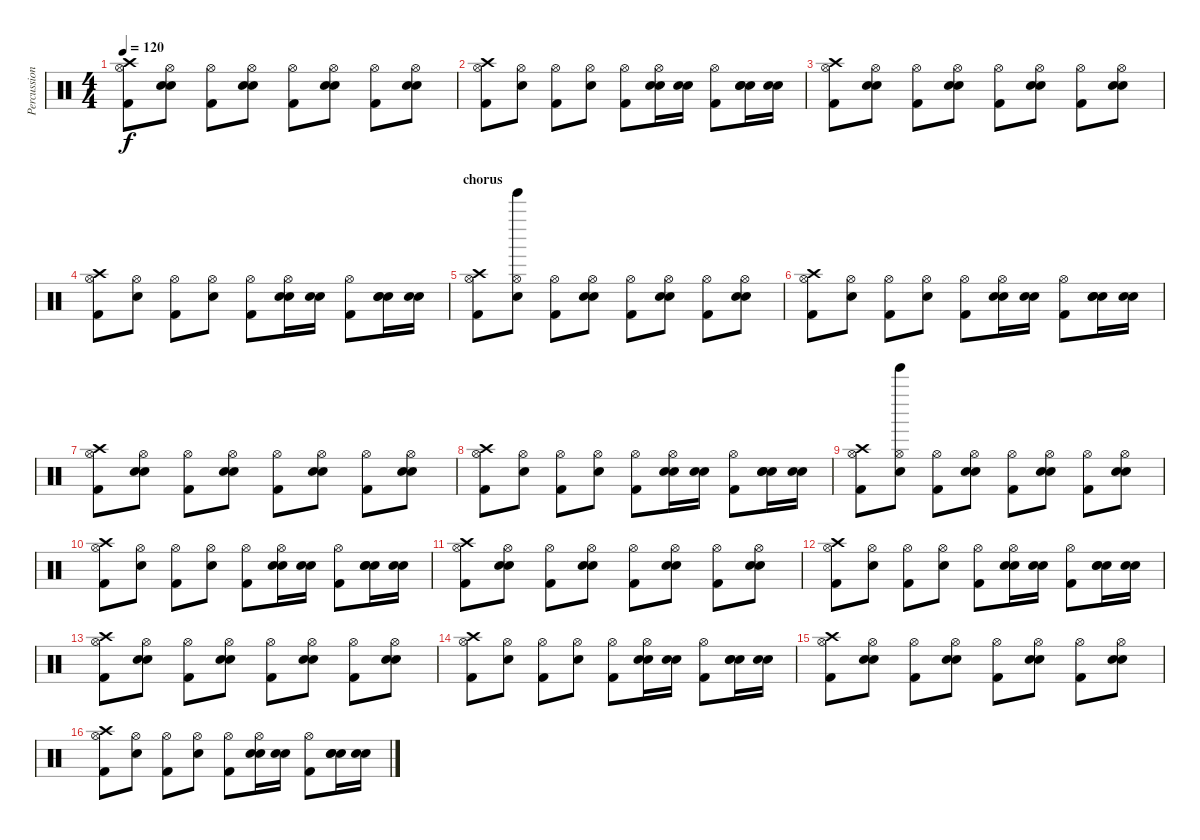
\track ("Percussion" "Percussion") {instrument percussion}
\staff {score}
\articulation defaults
\ts (4 4)
\tempo 120
\clef neutral
\ks c
("Hi-Hat (open)" "Crash high (hit)" "Kick (hit) 2").8{dy f} ("Hi-Hat (open)" "Electric Snare (hit)" "Snare (hit) 2").8 ("Hi-Hat (open)" "Kick (hit) 2").8 ("Hi-Hat (open)" "Electric Snare (hit)" "Snare (hit) 2").8 ("Hi-Hat (open)" "Kick (hit) 2").8 ("Hi-Hat (open)" "Electric Snare (hit)" "Snare (hit) 2").8 ("Hi-Hat (open)" "Kick (hit) 2").8 ("Hi-Hat (open)" "Electric Snare (hit)" "Snare (hit) 2").8 |
("Hi-Hat (open)" "Crash high (hit)" "Kick (hit) 2").8 ("Hi-Hat (open)" "Electric Snare (hit)").8 ("Hi-Hat (open)" "Kick (hit) 2").8 ("Hi-Hat (open)" "Electric Snare (hit)").8 ("Hi-Hat (open)" "Kick (hit) 2").8 ("Hi-Hat (open)" "Electric Snare (hit)" "Snare (hit) 2").16 ("Electric Snare (hit)" "Snare (hit) 2").16 ("Hi-Hat (open)" "Kick (hit) 2").8 ("Electric Snare (hit)" "Electric Snare (hit)" "Snare (hit) 2").16 ("Electric Snare (hit)" "Snare (hit) 2").16 |
("Hi-Hat (open)" "Crash high (hit)" "Kick (hit) 2").8 ("Hi-Hat (open)" "Electric Snare (hit)" "Snare (hit) 2").8 ("Hi-Hat (open)" "Kick (hit) 2").8 ("Hi-Hat (open)" "Electric Snare (hit)" "Snare (hit) 2").8 ("Hi-Hat (open)" "Kick (hit) 2").8 ("Hi-Hat (open)" "Electric Snare (hit)" "Snare (hit) 2").8 ("Hi-Hat (open)" "Kick (hit) 2").8 ("Hi-Hat (open)" "Electric Snare (hit)" "Snare (hit) 2").8 |
("Hi-Hat (open)" "Crash high (hit)" "Kick (hit) 2").8 ("Hi-Hat (open)" "Electric Snare (hit)").8 ("Hi-Hat (open)" "Kick (hit) 2").8 ("Hi-Hat (open)" "Electric Snare (hit)").8 ("Hi-Hat (open)" "Kick (hit) 2").8 ("Hi-Hat (open)" "Electric Snare (hit)" "Snare (hit) 2").16 ("Electric Snare (hit)" "Snare (hit) 2").16 ("Hi-Hat (open)" "Kick (hit) 2").8 ("Electric Snare (hit)" "Electric Snare (hit)" "Snare (hit) 2").16 ("Electric Snare (hit)" "Snare (hit) 2").16 |
\section ("" "chorus")
("Hi-Hat (open)" "Crash high (hit)" "Kick (hit) 2").8 ("Hi-Hat (open)" "Electric Snare (hit)" "Tinkle Bell (hit)").8 ("Hi-Hat (open)" "Kick (hit) 2").8 ("Hi-Hat (open)" "Electric Snare (hit)" "Snare (hit) 2").8 ("Hi-Hat (open)" "Kick (hit) 2").8 ("Hi-Hat (open)" "Electric Snare (hit)" "Snare (hit) 2").8 ("Hi-Hat (open)" "Kick (hit) 2").8 ("Hi-Hat (open)" "Electric Snare (hit)" "Snare (hit) 2").8 |
("Hi-Hat (open)" "Crash high (hit)" "Kick (hit) 2").8 ("Hi-Hat (open)" "Electric Snare (hit)").8 ("Hi-Hat (open)" "Kick (hit) 2").8 ("Hi-Hat (open)" "Electric Snare (hit)").8 ("Hi-Hat (open)" "Kick (hit) 2").8 ("Hi-Hat (open)" "Electric Snare (hit)" "Snare (hit) 2").16 ("Electric Snare (hit)" "Snare (hit) 2").16 ("Hi-Hat (open)" "Kick (hit) 2").8 ("Electric Snare (hit)" "Electric Snare (hit)" "Snare (hit) 2").16 ("Electric Snare (hit)" "Snare (hit) 2").16 |
("Hi-Hat (open)" "Crash high (hit)" "Kick (hit) 2").8 ("Hi-Hat (open)" "Electric Snare (hit)" "Snare (hit) 2").8 ("Hi-Hat (open)" "Kick (hit) 2").8 ("Hi-Hat (open)" "Electric Snare (hit)" "Snare (hit) 2").8 ("Hi-Hat (open)" "Kick (hit) 2").8 ("Hi-Hat (open)" "Electric Snare (hit)" "Snare (hit) 2").8 ("Hi-Hat (open)" "Kick (hit) 2").8 ("Hi-Hat (open)" "Electric Snare (hit)" "Snare (hit) 2").8 |
("Hi-Hat (open)" "Crash high (hit)" "Kick (hit) 2").8 ("Hi-Hat (open)" "Electric Snare (hit)").8 ("Hi-Hat (open)" "Kick (hit) 2").8 ("Hi-Hat (open)" "Electric Snare (hit)").8 ("Hi-Hat (open)" "Kick (hit) 2").8 ("Hi-Hat (open)" "Electric Snare (hit)" "Snare (hit) 2").16 ("Electric Snare (hit)" "Snare (hit) 2").16 ("Hi-Hat (open)" "Kick (hit) 2").8 ("Electric Snare (hit)" "Electric Snare (hit)" "Snare (hit) 2").16 ("Electric Snare (hit)" "Snare (hit) 2").16 |
("Hi-Hat (open)" "Crash high (hit)" "Kick (hit) 2").8 ("Hi-Hat (open)" "Electric Snare (hit)" "Tinkle Bell (hit)").8 ("Hi-Hat (open)" "Kick (hit) 2").8 ("Hi-Hat (open)" "Electric Snare (hit)" "Snare (hit) 2").8 ("Hi-Hat (open)" "Kick (hit) 2").8 ("Hi-Hat (open)" "Electric Snare (hit)" "Snare (hit) 2").8 ("Hi-Hat (open)" "Kick (hit) 2").8 ("Hi-Hat (open)" "Electric Snare (hit)" "Snare (hit) 2").8 |
("Hi-Hat (open)" "Crash high (hit)" "Kick (hit) 2").8 ("Hi-Hat (open)" "Electric Snare (hit)").8 ("Hi-Hat (open)" "Kick (hit) 2").8 ("Hi-Hat (open)" "Electric Snare (hit)").8 ("Hi-Hat (open)" "Kick (hit) 2").8 ("Hi-Hat (open)" "Electric Snare (hit)" "Snare (hit) 2").16 ("Electric Snare (hit)" "Snare (hit) 2").16 ("Hi-Hat (open)" "Kick (hit) 2").8 ("Electric Snare (hit)" "Electric Snare (hit)" "Snare (hit) 2").16 ("Electric Snare (hit)" "Snare (hit) 2").16 |
("Hi-Hat (open)" "Crash high (hit)" "Kick (hit) 2").8 ("Hi-Hat (open)" "Electric Snare (hit)" "Snare (hit) 2").8 ("Hi-Hat (open)" "Kick (hit) 2").8 ("Hi-Hat (open)" "Electric Snare (hit)" "Snare (hit) 2").8 ("Hi-Hat (open)" "Kick (hit) 2").8 ("Hi-Hat (open)" "Electric Snare (hit)" "Snare (hit) 2").8 ("Hi-Hat (open)" "Kick (hit) 2").8 ("Hi-Hat (open)" "Electric Snare (hit)" "Snare (hit) 2").8 |
("Hi-Hat (open)" "Crash high (hit)" "Kick (hit) 2").8 ("Hi-Hat (open)" "Electric Snare (hit)").8 ("Hi-Hat (open)" "Kick (hit) 2").8 ("Hi-Hat (open)" "Electric Snare (hit)").8 ("Hi-Hat (open)" "Kick (hit) 2").8 ("Hi-Hat (open)" "Electric Snare (hit)" "Snare (hit) 2").16 ("Electric Snare (hit)" "Snare (hit) 2").16 ("Hi-Hat (open)" "Kick (hit) 2").8 ("Electric Snare (hit)" "Electric Snare (hit)" "Snare (hit) 2").16 ("Electric Snare (hit)" "Snare (hit) 2").16 |
("Hi-Hat (open)" "Crash high (hit)" "Kick (hit) 2").8 ("Hi-Hat (open)" "Electric Snare (hit)" "Snare (hit) 2").8 ("Hi-Hat (open)" "Kick (hit) 2").8 ("Hi-Hat (open)" "Electric Snare (hit)" "Snare (hit) 2").8 ("Hi-Hat (open)" "Kick (hit) 2").8 ("Hi-Hat (open)" "Electric Snare (hit)" "Snare (hit) 2").8 ("Hi-Hat (open)" "Kick (hit) 2").8 ("Hi-Hat (open)" "Electric Snare (hit)" "Snare (hit) 2").8 |
("Hi-Hat (open)" "Crash high (hit)" "Kick (hit) 2").8 ("Hi-Hat (open)" "Electric Snare (hit)").8 ("Hi-Hat (open)" "Kick (hit) 2").8 ("Hi-Hat (open)" "Electric Snare (hit)").8 ("Hi-Hat (open)" "Kick (hit) 2").8 ("Hi-Hat (open)" "Electric Snare (hit)" "Snare (hit) 2").16 ("Electric Snare (hit)" "Snare (hit) 2").16 ("Hi-Hat (open)" "Kick (hit) 2").8 ("Electric Snare (hit)" "Electric Snare (hit)" "Snare (hit) 2").16 ("Electric Snare (hit)" "Snare (hit) 2").16 |
("Hi-Hat (open)" "Crash high (hit)" "Kick (hit) 2").8 ("Hi-Hat (open)" "Electric Snare (hit)" "Snare (hit) 2").8 ("Hi-Hat (open)" "Kick (hit) 2").8 ("Hi-Hat (open)" "Electric Snare (hit)" "Snare (hit) 2").8 ("Hi-Hat (open)" "Kick (hit) 2").8 ("Hi-Hat (open)" "Electric Snare (hit)" "Snare (hit) 2").8 ("Hi-Hat (open)" "Kick (hit) 2").8 ("Hi-Hat (open)" "Electric Snare (hit)" "Snare (hit) 2").8 |
("Hi-Hat (open)" "Crash high (hit)" "Kick (hit) 2").8 ("Hi-Hat (open)" "Electric Snare (hit)").8 ("Hi-Hat (open)" "Kick (hit) 2").8 ("Hi-Hat (open)" "Electric Snare (hit)").8 ("Hi-Hat (open)" "Kick (hit) 2").8 ("Hi-Hat (open)" "Electric Snare (hit)" "Snare (hit) 2").16 ("Electric Snare (hit)" "Snare (hit) 2").16 ("Hi-Hat (open)" "Kick (hit) 2").8 ("Electric Snare (hit)" "Electric Snare (hit)" "Snare (hit) 2").16 ("Electric Snare (hit)" "Snare (hit) 2").16
